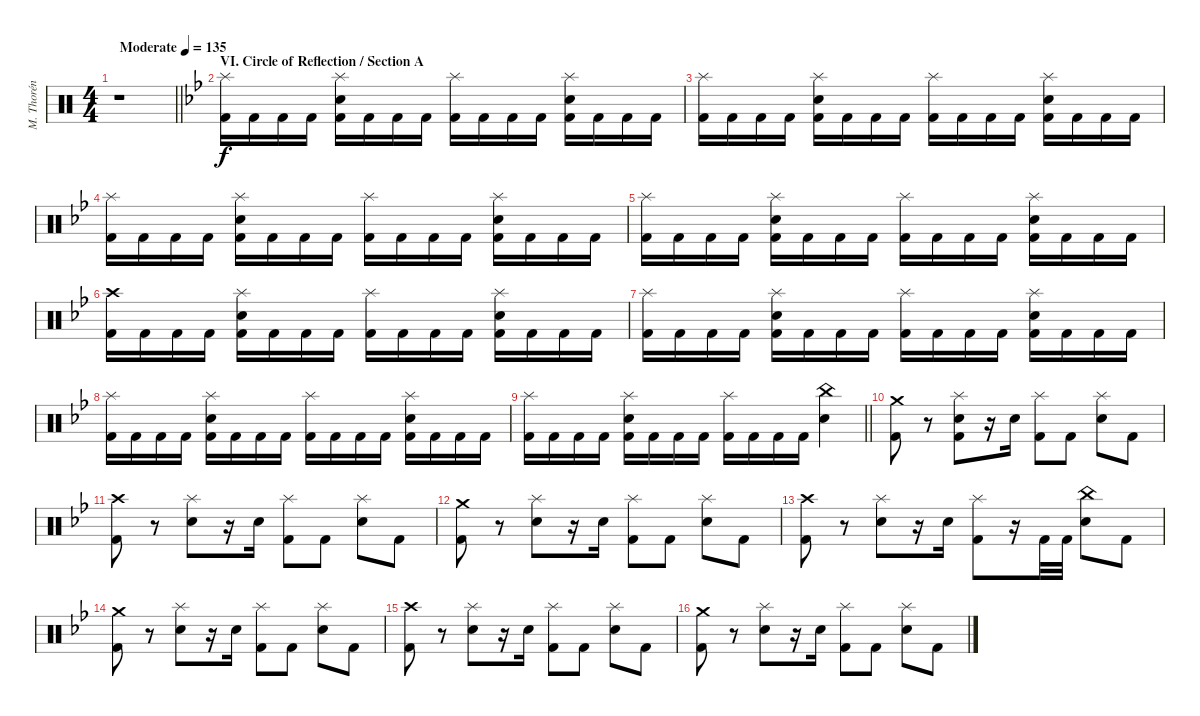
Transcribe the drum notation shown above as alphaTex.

\track ("M. Thorén (Drums)" "M. Thorén ") {instrument percussion}
\staff {score}
\articulation defaults
\ts (4 4)
\tempo (135 "Moderate")
\clef neutral
\barLineRight lightlight
\ks c
r.1{dy f} |
\section ("" "VI. Circle of Reflection / Section A")
\ks gminor
("Splash (hit)" "Kick (hit) 2").16 "Kick (hit) 2".16 "Kick (hit) 2".16 "Kick (hit) 2".16 ("Splash (hit)" "Electric Snare (hit)" "Kick (hit) 2").16 "Kick (hit) 2".16 "Kick (hit) 2".16 "Kick (hit) 2".16 ("Splash (hit)" "Kick (hit) 2").16 "Kick (hit) 2".16 "Kick (hit) 2".16 "Kick (hit) 2".16 ("Splash (hit)" "Electric Snare (hit)" "Kick (hit) 2").16 "Kick (hit) 2".16 "Kick (hit) 2".16 "Kick (hit) 2".16 |
("Splash (hit)" "Kick (hit) 2").16 "Kick (hit) 2".16 "Kick (hit) 2".16 "Kick (hit) 2".16 ("Splash (hit)" "Electric Snare (hit)" "Kick (hit) 2").16 "Kick (hit) 2".16 "Kick (hit) 2".16 "Kick (hit) 2".16 ("Splash (hit)" "Kick (hit) 2").16 "Kick (hit) 2".16 "Kick (hit) 2".16 "Kick (hit) 2".16 ("Splash (hit)" "Electric Snare (hit)" "Kick (hit) 2").16 "Kick (hit) 2".16 "Kick (hit) 2".16 "Kick (hit) 2".16 |
("Splash (hit)" "Kick (hit) 2").16 "Kick (hit) 2".16 "Kick (hit) 2".16 "Kick (hit) 2".16 ("Splash (hit)" "Electric Snare (hit)" "Kick (hit) 2").16 "Kick (hit) 2".16 "Kick (hit) 2".16 "Kick (hit) 2".16 ("Splash (hit)" "Kick (hit) 2").16 "Kick (hit) 2".16 "Kick (hit) 2".16 "Kick (hit) 2".16 ("Splash (hit)" "Electric Snare (hit)" "Kick (hit) 2").16 "Kick (hit) 2".16 "Kick (hit) 2".16 "Kick (hit) 2".16 |
("Splash (hit)" "Kick (hit) 2").16 "Kick (hit) 2".16 "Kick (hit) 2".16 "Kick (hit) 2".16 ("Splash (hit)" "Electric Snare (hit)" "Kick (hit) 2").16 "Kick (hit) 2".16 "Kick (hit) 2".16 "Kick (hit) 2".16 ("Splash (hit)" "Kick (hit) 2").16 "Kick (hit) 2".16 "Kick (hit) 2".16 "Kick (hit) 2".16 ("Splash (hit)" "Electric Snare (hit)" "Kick (hit) 2").16 "Kick (hit) 2".16 "Kick (hit) 2".16 "Kick (hit) 2".16 |
("Crash high (hit)" "Kick (hit) 2").16 "Kick (hit) 2".16 "Kick (hit) 2".16 "Kick (hit) 2".16 ("Splash (hit)" "Electric Snare (hit)" "Kick (hit) 2").16 "Kick (hit) 2".16 "Kick (hit) 2".16 "Kick (hit) 2".16 ("Splash (hit)" "Kick (hit) 2").16 "Kick (hit) 2".16 "Kick (hit) 2".16 "Kick (hit) 2".16 ("Splash (hit)" "Electric Snare (hit)" "Kick (hit) 2").16 "Kick (hit) 2".16 "Kick (hit) 2".16 "Kick (hit) 2".16 |
("Splash (hit)" "Kick (hit) 2").16 "Kick (hit) 2".16 "Kick (hit) 2".16 "Kick (hit) 2".16 ("Splash (hit)" "Electric Snare (hit)" "Kick (hit) 2").16 "Kick (hit) 2".16 "Kick (hit) 2".16 "Kick (hit) 2".16 ("Splash (hit)" "Kick (hit) 2").16 "Kick (hit) 2".16 "Kick (hit) 2".16 "Kick (hit) 2".16 ("Splash (hit)" "Electric Snare (hit)" "Kick (hit) 2").16 "Kick (hit) 2".16 "Kick (hit) 2".16 "Kick (hit) 2".16 |
("Splash (hit)" "Kick (hit) 2").16 "Kick (hit) 2".16 "Kick (hit) 2".16 "Kick (hit) 2".16 ("Splash (hit)" "Electric Snare (hit)" "Kick (hit) 2").16 "Kick (hit) 2".16 "Kick (hit) 2".16 "Kick (hit) 2".16 ("Splash (hit)" "Kick (hit) 2").16 "Kick (hit) 2".16 "Kick (hit) 2".16 "Kick (hit) 2".16 ("Splash (hit)" "Electric Snare (hit)" "Kick (hit) 2").16 "Kick (hit) 2".16 "Kick (hit) 2".16 "Kick (hit) 2".16 |
\barLineRight lightlight
("Splash (hit)" "Kick (hit) 2").16 "Kick (hit) 2".16 "Kick (hit) 2".16 "Kick (hit) 2".16 ("Splash (hit)" "Electric Snare (hit)" "Kick (hit) 2").16 "Kick (hit) 2".16 "Kick (hit) 2".16 "Kick (hit) 2".16 ("Splash (hit)" "Kick (hit) 2").16 "Kick (hit) 2".16 "Kick (hit) 2".16 "Kick (hit) 2".16 ("China (hit)" "Electric Snare (hit)").4 |
("Crash medium (hit)" "Kick (hit) 2").8 r.8 ("Splash (hit)" "Electric Snare (hit)" "Kick (hit) 2").8 r.16 "Electric Snare (hit)".16 ("Splash (hit)" "Kick (hit) 2").8 "Kick (hit) 2".8 ("Splash (hit)" "Electric Snare (hit)").8 "Kick (hit) 2".8 |
("Crash high (hit)" "Kick (hit) 2").8 r.8 ("Splash (hit)" "Electric Snare (hit)").8 r.16 "Electric Snare (hit)".16 ("Splash (hit)" "Kick (hit) 2").8 "Kick (hit) 2".8 ("Splash (hit)" "Electric Snare (hit)").8 "Kick (hit) 2".8 |
("Crash medium (hit)" "Kick (hit) 2").8 r.8 ("Splash (hit)" "Electric Snare (hit)").8 r.16 "Electric Snare (hit)".16 ("Splash (hit)" "Kick (hit) 2").8 "Kick (hit) 2".8 ("Splash (hit)" "Electric Snare (hit)").8 "Kick (hit) 2".8 |
("Crash high (hit)" "Kick (hit) 2").8 r.8 ("Splash (hit)" "Electric Snare (hit)").8 r.16 "Electric Snare (hit)".16 ("Splash (hit)" "Kick (hit) 2").8 r.16 "Kick (hit) 2".32 "Kick (hit) 2".32 ("China (hit)" "Electric Snare (hit)").8 "Kick (hit) 2".8 |
("Crash medium (hit)" "Kick (hit) 2").8 r.8 ("Splash (hit)" "Electric Snare (hit)").8 r.16 "Electric Snare (hit)".16 ("Splash (hit)" "Kick (hit) 2").8 "Kick (hit) 2".8 ("Splash (hit)" "Electric Snare (hit)").8 "Kick (hit) 2".8 |
("Crash high (hit)" "Kick (hit) 2").8 r.8 ("Splash (hit)" "Electric Snare (hit)").8 r.16 "Electric Snare (hit)".16 ("Splash (hit)" "Kick (hit) 2").8 "Kick (hit) 2".8 ("Splash (hit)" "Electric Snare (hit)").8 "Kick (hit) 2".8 |
("Crash medium (hit)" "Kick (hit) 2").8 r.8 ("Splash (hit)" "Electric Snare (hit)").8 r.16 "Electric Snare (hit)".16 ("Splash (hit)" "Kick (hit) 2").8 "Kick (hit) 2".8 ("Splash (hit)" "Electric Snare (hit)").8 "Kick (hit) 2".8
